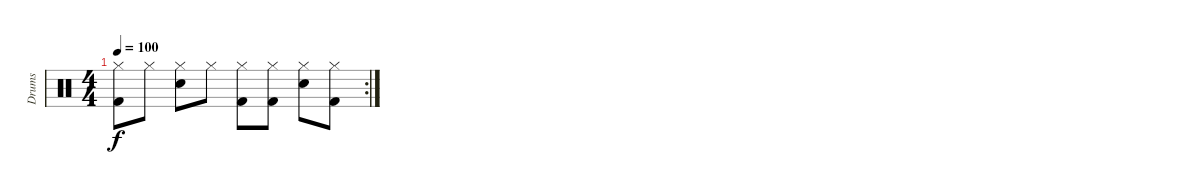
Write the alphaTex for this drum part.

\track ("Drums" "Drums") {instrument percussion}
\staff {score}
\articulation defaults
\rc 2
\ts (4 4)
\tempo 100
\clef neutral
\ks c
("Hi-Hat (closed)" "Kick (hit) 2").8{dy f} "Hi-Hat (closed)".8 ("Hi-Hat (closed)" "Snare (hit) 2").8 "Hi-Hat (closed)".8 ("Hi-Hat (closed)" "Kick (hit) 2").8 ("Hi-Hat (closed)" "Kick (hit) 2").8 ("Hi-Hat (closed)" "Snare (hit) 2").8 ("Hi-Hat (closed)" "Kick (hit) 2").8
